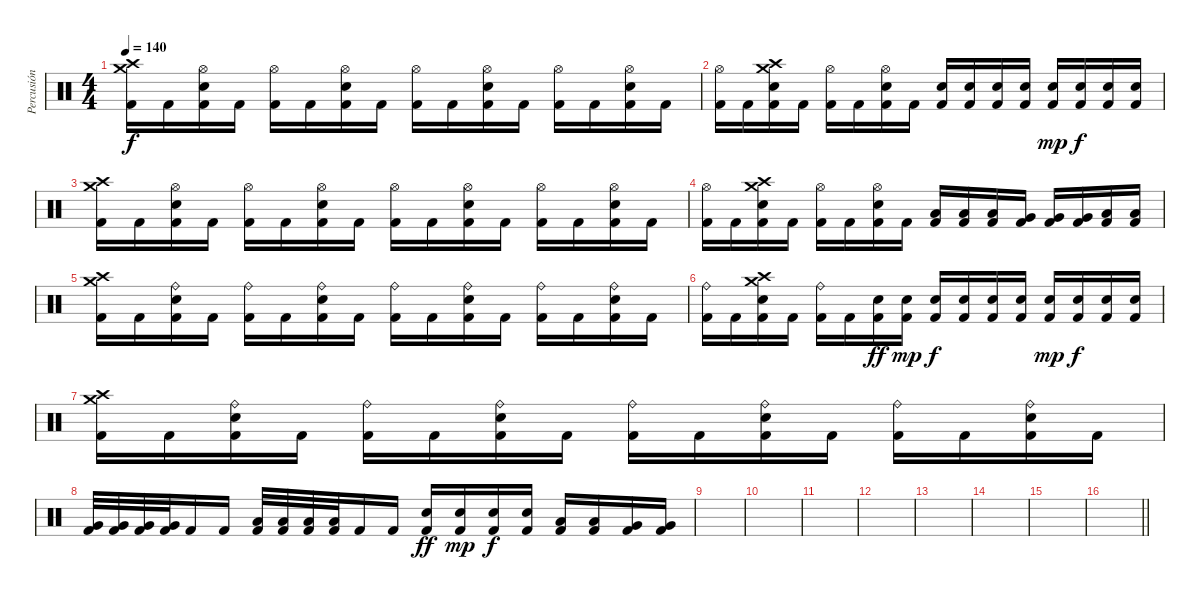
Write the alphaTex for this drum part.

\track ("Percusión" "Percusión") {instrument percussion}
\staff {score}
\articulation defaults
\ts (4 4)
\tempo 140
\clef neutral
\ks c
("Crash medium (hit)" "Crash high (hit)" "Kick (hit) 2").16{dy f} "Kick (hit) 2".16 ("Hi-Hat (open)" "Electric Snare (hit)" "Kick (hit) 2").16 "Kick (hit) 2".16 ("Hi-Hat (open)" "Kick (hit) 2").16 "Kick (hit) 2".16 ("Hi-Hat (open)" "Electric Snare (hit)" "Kick (hit) 2").16 "Kick (hit) 2".16 ("Hi-Hat (open)" "Kick (hit) 2").16 "Kick (hit) 2".16 ("Hi-Hat (open)" "Electric Snare (hit)" "Kick (hit) 2").16 "Kick (hit) 2".16 ("Hi-Hat (open)" "Kick (hit) 2").16 "Kick (hit) 2".16 ("Hi-Hat (open)" "Electric Snare (hit)" "Kick (hit) 2").16 "Kick (hit) 2".16 |
("Hi-Hat (open)" "Kick (hit) 2").16 "Kick (hit) 2".16 ("Crash medium (hit)" "Crash high (hit)" "Electric Snare (hit)" "Kick (hit) 2").16 "Kick (hit) 2".16 ("Hi-Hat (open)" "Kick (hit) 2").16 "Kick (hit) 2".16 ("Hi-Hat (open)" "Electric Snare (hit)" "Kick (hit) 2").16 "Kick (hit) 2".16 ("Electric Snare (hit)" "Kick (hit) 2").16 ("Electric Snare (hit)" "Kick (hit) 2").16 ("Electric Snare (hit)" "Kick (hit) 2").16 ("Electric Snare (hit)" "Kick (hit) 2").16 ("Electric Snare (hit)" "Kick (hit) 2").16{dy mp} ("Electric Snare (hit)" "Kick (hit) 2").16{dy f} ("Electric Snare (hit)" "Kick (hit) 2").16 ("Electric Snare (hit)" "Kick (hit) 2").16 |
("Crash medium (hit)" "Crash high (hit)" "Kick (hit) 2").16 "Kick (hit) 2".16 ("Hi-Hat (open)" "Electric Snare (hit)" "Kick (hit) 2").16 "Kick (hit) 2".16 ("Hi-Hat (open)" "Kick (hit) 2").16 "Kick (hit) 2".16 ("Hi-Hat (open)" "Electric Snare (hit)" "Kick (hit) 2").16 "Kick (hit) 2".16 ("Hi-Hat (open)" "Kick (hit) 2").16 "Kick (hit) 2".16 ("Hi-Hat (open)" "Electric Snare (hit)" "Kick (hit) 2").16 "Kick (hit) 2".16 ("Hi-Hat (open)" "Kick (hit) 2").16 "Kick (hit) 2".16 ("Hi-Hat (open)" "Electric Snare (hit)" "Kick (hit) 2").16 "Kick (hit) 2".16 |
("Hi-Hat (open)" "Kick (hit) 2").16 "Kick (hit) 2".16 ("Crash medium (hit)" "Crash high (hit)" "Electric Snare (hit)" "Kick (hit) 2").16 "Kick (hit) 2".16 ("Hi-Hat (open)" "Kick (hit) 2").16 "Kick (hit) 2".16 ("Hi-Hat (open)" "Electric Snare (hit)" "Kick (hit) 2").16 "Kick (hit) 2".16 ("Low Tom (hit)" "Kick (hit) 2").16 ("Low Tom (hit)" "Kick (hit) 2").16 ("Low Tom (hit)" "Kick (hit) 2").16 ("Very Low Tom (hit)" "Kick (hit) 2").16 ("Very Low Tom (hit)" "Kick (hit) 2").16 ("Very Low Tom (hit)" "Kick (hit) 2").16 ("Low Floor Tom (hit)" "Kick (hit) 2").16 ("Low Floor Tom (hit)" "Kick (hit) 2").16 |
("Crash medium (hit)" "Crash high (hit)" "Kick (hit) 2").16 "Kick (hit) 2".16 ("Ride (bell)" "Electric Snare (hit)" "Kick (hit) 2").16 "Kick (hit) 2".16 ("Ride (bell)" "Kick (hit) 2").16 "Kick (hit) 2".16 ("Ride (bell)" "Electric Snare (hit)" "Kick (hit) 2").16 "Kick (hit) 2".16 ("Ride (bell)" "Kick (hit) 2").16 "Kick (hit) 2".16 ("Ride (bell)" "Electric Snare (hit)" "Kick (hit) 2").16 "Kick (hit) 2".16 ("Ride (bell)" "Kick (hit) 2").16 "Kick (hit) 2".16 ("Ride (bell)" "Electric Snare (hit)" "Kick (hit) 2").16 "Kick (hit) 2".16 |
("Ride (bell)" "Kick (hit) 2").16 "Kick (hit) 2".16 ("Crash medium (hit)" "Crash high (hit)" "Electric Snare (hit)" "Kick (hit) 2").16 "Kick (hit) 2".16 ("Ride (bell)" "Kick (hit) 2").16 "Kick (hit) 2".16 ("Electric Snare (hit)" "Kick (hit) 2").16{dy ff} ("Electric Snare (hit)" "Kick (hit) 2").16{dy mp} ("Electric Snare (hit)" "Kick (hit) 2").16{dy f} ("Electric Snare (hit)" "Kick (hit) 2").16 ("Electric Snare (hit)" "Kick (hit) 2").16 ("Electric Snare (hit)" "Kick (hit) 2").16 ("Electric Snare (hit)" "Kick (hit) 2").16{dy mp} ("Electric Snare (hit)" "Kick (hit) 2").16{dy f} ("Electric Snare (hit)" "Kick (hit) 2").16 ("Electric Snare (hit)" "Kick (hit) 2").16 |
("Crash medium (hit)" "Crash high (hit)" "Kick (hit) 2").16 "Kick (hit) 2".16 ("Ride (bell)" "Electric Snare (hit)" "Kick (hit) 2").16 "Kick (hit) 2".16 ("Ride (bell)" "Kick (hit) 2").16 "Kick (hit) 2".16 ("Ride (bell)" "Electric Snare (hit)" "Kick (hit) 2").16 "Kick (hit) 2".16 ("Ride (bell)" "Kick (hit) 2").16 "Kick (hit) 2".16 ("Ride (bell)" "Electric Snare (hit)" "Kick (hit) 2").16 "Kick (hit) 2".16 ("Ride (bell)" "Kick (hit) 2").16 "Kick (hit) 2".16 ("Ride (bell)" "Electric Snare (hit)" "Kick (hit) 2").16 "Kick (hit) 2".16 |
("Very Low Tom (hit)" "Kick (hit) 2").32 ("Very Low Tom (hit)" "Kick (hit) 2").32 ("Very Low Tom (hit)" "Kick (hit) 2").32 ("Very Low Tom (hit)" "Kick (hit) 2").32 "Kick (hit) 2".16 "Kick (hit) 2".16 ("Low Floor Tom (hit)" "Kick (hit) 2").32 ("Low Floor Tom (hit)" "Kick (hit) 2").32 ("Low Floor Tom (hit)" "Kick (hit) 2").32 ("Low Floor Tom (hit)" "Kick (hit) 2").32 "Kick (hit) 2".16 "Kick (hit) 2".16 ("Electric Snare (hit)" "Kick (hit) 2").16{dy ff} ("Electric Snare (hit)" "Kick (hit) 2").16{dy mp} ("Electric Snare (hit)" "Kick (hit) 2").16{dy f} ("Electric Snare (hit)" "Kick (hit) 2").16 ("Low Tom (hit)" "Kick (hit) 2").16 ("Low Tom (hit)" "Kick (hit) 2").16 ("Very Low Tom (hit)" "Kick (hit) 2").16 ("Very Low Tom (hit)" "Kick (hit) 2").16 |
|
|
|
|
|
|
|
\barLineRight lightlight
